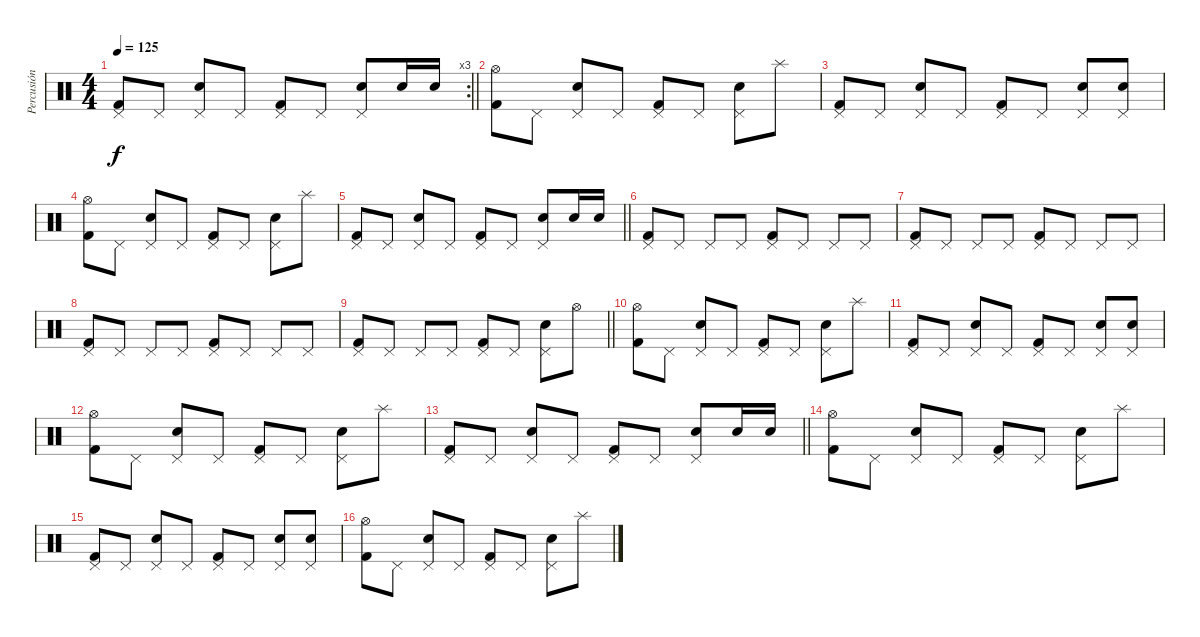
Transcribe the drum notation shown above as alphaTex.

\track ("Percusión" "Percusión") {instrument percussion}
\staff {score}
\articulation defaults
\rc 3
\ts (4 4)
\tempo 125
\clef neutral
\barLineRight lightlight
\ks c
("Pedal Hi-Hat (hit)" "Kick (hit) 2").8{dy f} "Pedal Hi-Hat (hit)".8 ("Pedal Hi-Hat (hit)" "Snare (hit) 2").8 "Pedal Hi-Hat (hit)".8 ("Pedal Hi-Hat (hit)" "Kick (hit) 2").8 "Pedal Hi-Hat (hit)".8 ("Pedal Hi-Hat (hit)" "Snare (hit) 2").8 "Snare (hit) 2".16 "Snare (hit) 2".16 |
("Hi-Hat (open)" "Kick (hit) 2").8 "Pedal Hi-Hat (hit)".8 ("Pedal Hi-Hat (hit)" "Snare (hit) 2").8 "Pedal Hi-Hat (hit)".8 ("Pedal Hi-Hat (hit)" "Kick (hit) 2").8 "Pedal Hi-Hat (hit)".8 ("Pedal Hi-Hat (hit)" "Snare (hit) 2").8 "Splash (hit)".8 |
("Pedal Hi-Hat (hit)" "Kick (hit) 2").8 "Pedal Hi-Hat (hit)".8 ("Pedal Hi-Hat (hit)" "Snare (hit) 2").8 "Pedal Hi-Hat (hit)".8 ("Pedal Hi-Hat (hit)" "Kick (hit) 2").8 "Pedal Hi-Hat (hit)".8 ("Pedal Hi-Hat (hit)" "Snare (hit) 2").8 ("Pedal Hi-Hat (hit)" "Snare (hit) 2").8 |
("Hi-Hat (open)" "Kick (hit) 2").8 "Pedal Hi-Hat (hit)".8 ("Pedal Hi-Hat (hit)" "Snare (hit) 2").8 "Pedal Hi-Hat (hit)".8 ("Pedal Hi-Hat (hit)" "Kick (hit) 2").8 "Pedal Hi-Hat (hit)".8 ("Pedal Hi-Hat (hit)" "Snare (hit) 2").8 "Splash (hit)".8 |
\barLineRight lightlight
("Pedal Hi-Hat (hit)" "Kick (hit) 2").8 "Pedal Hi-Hat (hit)".8 ("Pedal Hi-Hat (hit)" "Snare (hit) 2").8 "Pedal Hi-Hat (hit)".8 ("Pedal Hi-Hat (hit)" "Kick (hit) 2").8 "Pedal Hi-Hat (hit)".8 ("Pedal Hi-Hat (hit)" "Snare (hit) 2").8 "Snare (hit) 2".16 "Snare (hit) 2".16 |
("Pedal Hi-Hat (hit)" "Kick (hit) 2").8 "Pedal Hi-Hat (hit)".8 "Pedal Hi-Hat (hit)".8 "Pedal Hi-Hat (hit)".8 ("Pedal Hi-Hat (hit)" "Kick (hit) 2").8 "Pedal Hi-Hat (hit)".8 "Pedal Hi-Hat (hit)".8 "Pedal Hi-Hat (hit)".8 |
("Pedal Hi-Hat (hit)" "Kick (hit) 2").8 "Pedal Hi-Hat (hit)".8 "Pedal Hi-Hat (hit)".8 "Pedal Hi-Hat (hit)".8 ("Pedal Hi-Hat (hit)" "Kick (hit) 2").8 "Pedal Hi-Hat (hit)".8 "Pedal Hi-Hat (hit)".8 "Pedal Hi-Hat (hit)".8 |
("Pedal Hi-Hat (hit)" "Kick (hit) 2").8 "Pedal Hi-Hat (hit)".8 "Pedal Hi-Hat (hit)".8 "Pedal Hi-Hat (hit)".8 ("Pedal Hi-Hat (hit)" "Kick (hit) 2").8 "Pedal Hi-Hat (hit)".8 "Pedal Hi-Hat (hit)".8 "Pedal Hi-Hat (hit)".8 |
\barLineRight lightlight
("Pedal Hi-Hat (hit)" "Kick (hit) 2").8 "Pedal Hi-Hat (hit)".8 "Pedal Hi-Hat (hit)".8 "Pedal Hi-Hat (hit)".8 ("Pedal Hi-Hat (hit)" "Kick (hit) 2").8 "Pedal Hi-Hat (hit)".8 ("Pedal Hi-Hat (hit)" "Snare (hit) 2").8 "Hi-Hat (open)".8 |
("Hi-Hat (open)" "Kick (hit) 2").8 "Pedal Hi-Hat (hit)".8 ("Pedal Hi-Hat (hit)" "Snare (hit) 2").8 "Pedal Hi-Hat (hit)".8 ("Pedal Hi-Hat (hit)" "Kick (hit) 2").8 "Pedal Hi-Hat (hit)".8 ("Pedal Hi-Hat (hit)" "Snare (hit) 2").8 "Splash (hit)".8 |
("Pedal Hi-Hat (hit)" "Kick (hit) 2").8 "Pedal Hi-Hat (hit)".8 ("Pedal Hi-Hat (hit)" "Snare (hit) 2").8 "Pedal Hi-Hat (hit)".8 ("Pedal Hi-Hat (hit)" "Kick (hit) 2").8 "Pedal Hi-Hat (hit)".8 ("Pedal Hi-Hat (hit)" "Snare (hit) 2").8 ("Pedal Hi-Hat (hit)" "Snare (hit) 2").8 |
("Hi-Hat (open)" "Kick (hit) 2").8 "Pedal Hi-Hat (hit)".8 ("Pedal Hi-Hat (hit)" "Snare (hit) 2").8 "Pedal Hi-Hat (hit)".8 ("Pedal Hi-Hat (hit)" "Kick (hit) 2").8 "Pedal Hi-Hat (hit)".8 ("Pedal Hi-Hat (hit)" "Snare (hit) 2").8 "Splash (hit)".8 |
\barLineRight lightlight
("Pedal Hi-Hat (hit)" "Kick (hit) 2").8 "Pedal Hi-Hat (hit)".8 ("Pedal Hi-Hat (hit)" "Snare (hit) 2").8 "Pedal Hi-Hat (hit)".8 ("Pedal Hi-Hat (hit)" "Kick (hit) 2").8 "Pedal Hi-Hat (hit)".8 ("Pedal Hi-Hat (hit)" "Snare (hit) 2").8 "Snare (hit) 2".16 "Snare (hit) 2".16 |
("Hi-Hat (open)" "Kick (hit) 2").8 "Pedal Hi-Hat (hit)".8 ("Pedal Hi-Hat (hit)" "Snare (hit) 2").8 "Pedal Hi-Hat (hit)".8 ("Pedal Hi-Hat (hit)" "Kick (hit) 2").8 "Pedal Hi-Hat (hit)".8 ("Pedal Hi-Hat (hit)" "Snare (hit) 2").8 "Splash (hit)".8 |
("Pedal Hi-Hat (hit)" "Kick (hit) 2").8 "Pedal Hi-Hat (hit)".8 ("Pedal Hi-Hat (hit)" "Snare (hit) 2").8 "Pedal Hi-Hat (hit)".8 ("Pedal Hi-Hat (hit)" "Kick (hit) 2").8 "Pedal Hi-Hat (hit)".8 ("Pedal Hi-Hat (hit)" "Snare (hit) 2").8 ("Pedal Hi-Hat (hit)" "Snare (hit) 2").8 |
("Hi-Hat (open)" "Kick (hit) 2").8 "Pedal Hi-Hat (hit)".8 ("Pedal Hi-Hat (hit)" "Snare (hit) 2").8 "Pedal Hi-Hat (hit)".8 ("Pedal Hi-Hat (hit)" "Kick (hit) 2").8 "Pedal Hi-Hat (hit)".8 ("Pedal Hi-Hat (hit)" "Snare (hit) 2").8 "Splash (hit)".8
